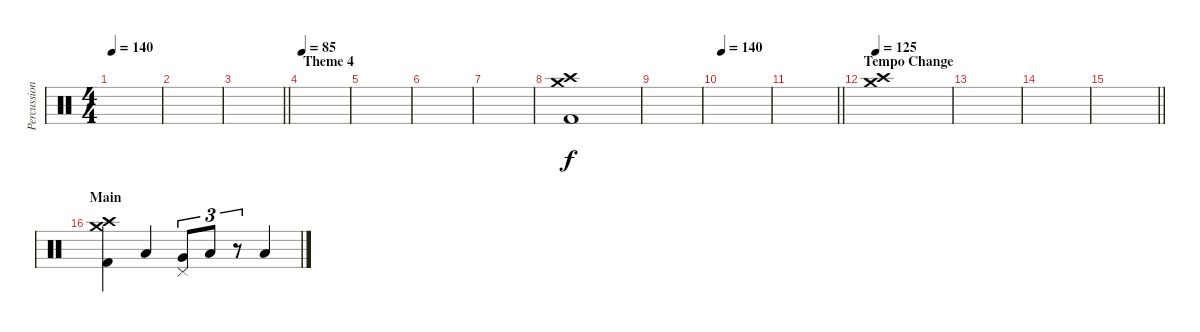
\track ("Percussion" "Percussion") {instrument percussion}
\staff {score}
\articulation defaults
\ts (4 4)
\tempo 140
\clef neutral
\ks c
|
|
\barLineRight lightlight
|
\section ("" "Theme 4")
\tempo 85
|
|
|
|
("Crash medium (hit)" "Crash high (hit)" "Kick (hit) 2").1 |
|
\tempo 140
|
\barLineRight lightlight
|
\section ("" "Tempo Change")
\tempo 125
("Crash medium (hit)" "Crash high (hit)").1 |
|
|
\barLineRight lightlight
|
\section ("" "Main")
("Crash medium (hit)" "Crash high (hit)" "Kick (hit) 2").4 "Low Floor Tom (hit)".4 ("Pedal Hi-Hat (hit)" "Very Low Tom (hit)").8{tu (3 2)} "Low Floor Tom (hit)".8{tu (3 2)} r.8{tu (3 2)} "Low Floor Tom (hit)".4
